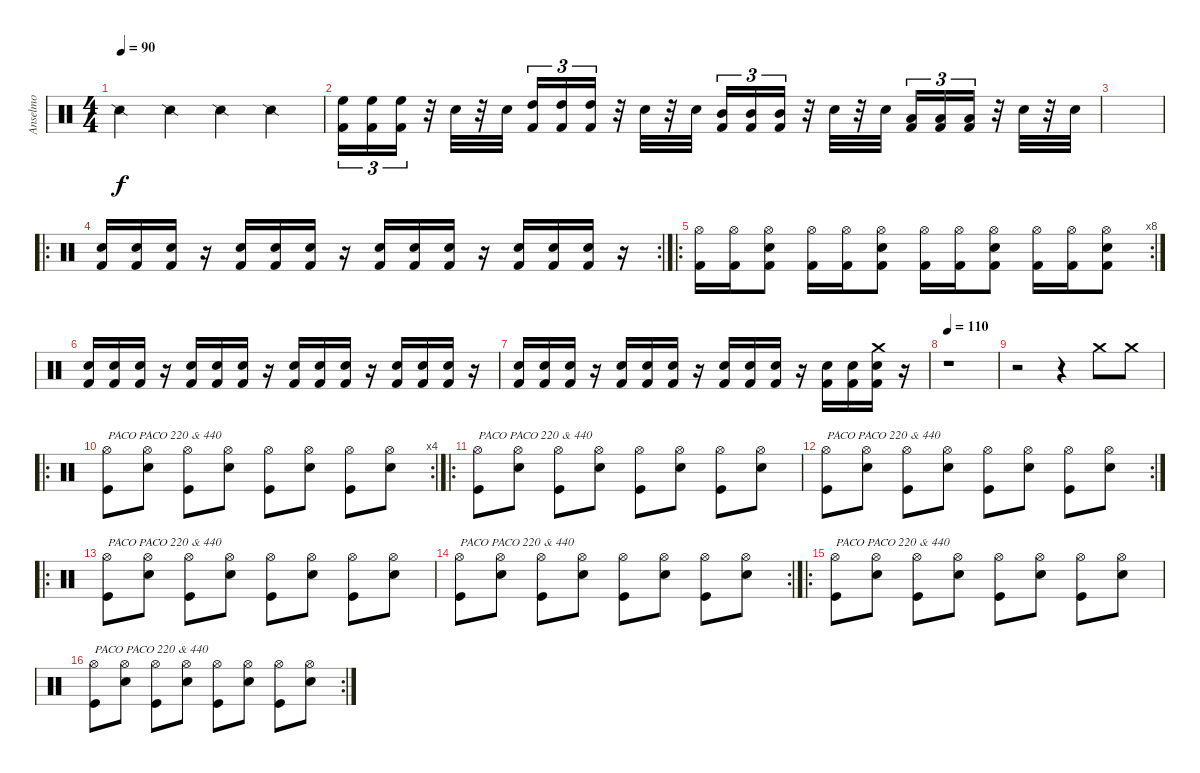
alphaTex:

\track ("Anselmo" "Anselmo") {instrument percussion}
\staff {score}
\articulation defaults
\ts (4 4)
\tempo 90
\clef neutral
\ks c "Snare (side stick) 2".4{dy f} "Snare (side stick) 2".4 "Snare (side stick) 2".4 "Snare (side stick) 2".4
|
("Kick (hit) 2" "High Floor Tom (hit)").16{tu (3 2)} ("Kick (hit) 2" "High Floor Tom (hit)").16{tu (3 2)} ("Kick (hit) 2" "High Floor Tom (hit)").16{tu (3 2)} r.32 "Electric Snare (hit)".32 r.32 "Electric Snare (hit)".32 ("Kick (hit) 2" "High Tom (hit)").16{tu (3 2)} ("Kick (hit) 2" "High Tom (hit)").16{tu (3 2)} ("Kick (hit) 2" "High Tom (hit)").16{tu (3 2)} r.32 "Electric Snare (hit)".32 r.32 "Electric Snare (hit)".32 ("Kick (hit) 2" "Mid Tom (hit)").16{tu (3 2)} ("Kick (hit) 2" "Mid Tom (hit)").16{tu (3 2)} ("Kick (hit) 2" "Mid Tom (hit)").16{tu (3 2)} r.32 "Electric Snare (hit)".32 r.32 "Electric Snare (hit)".32 ("Kick (hit) 2" "Low Tom (hit)").16{tu (3 2)} ("Kick (hit) 2" "Low Tom (hit)").16{tu (3 2)} ("Kick (hit) 2" "Low Tom (hit)").16{tu (3 2)} r.32 "Electric Snare (hit)".32 r.32 "Electric Snare (hit)".32 |
|
\ro
\rc 2
("Electric Snare (hit)" "Kick (hit) 2").16 ("Electric Snare (hit)" "Kick (hit) 2").16 ("Electric Snare (hit)" "Kick (hit) 2").16 r.16 ("Electric Snare (hit)" "Kick (hit) 2").16 ("Electric Snare (hit)" "Kick (hit) 2").16 ("Electric Snare (hit)" "Kick (hit) 2").16 r.16 ("Electric Snare (hit)" "Kick (hit) 2").16 ("Electric Snare (hit)" "Kick (hit) 2").16 ("Electric Snare (hit)" "Kick (hit) 2").16 r.16 ("Electric Snare (hit)" "Kick (hit) 2").16 ("Electric Snare (hit)" "Kick (hit) 2").16 ("Electric Snare (hit)" "Kick (hit) 2").16 r.16 |
\ro
\rc 8
("Hi-Hat (open)" "Kick (hit) 2").16 ("Hi-Hat (open)" "Kick (hit) 2").16 ("Hi-Hat (open)" "Electric Snare (hit)" "Kick (hit) 2").8 ("Hi-Hat (open)" "Kick (hit) 2").16 ("Hi-Hat (open)" "Kick (hit) 2").16 ("Hi-Hat (open)" "Electric Snare (hit)" "Kick (hit) 2").8 ("Hi-Hat (open)" "Kick (hit) 2").16 ("Hi-Hat (open)" "Kick (hit) 2").16 ("Hi-Hat (open)" "Electric Snare (hit)" "Kick (hit) 2").8 ("Hi-Hat (open)" "Kick (hit) 2").16 ("Hi-Hat (open)" "Kick (hit) 2").16 ("Hi-Hat (open)" "Electric Snare (hit)" "Kick (hit) 2").8 |
("Electric Snare (hit)" "Kick (hit) 2").16 ("Electric Snare (hit)" "Kick (hit) 2").16 ("Electric Snare (hit)" "Kick (hit) 2").16 r.16 ("Electric Snare (hit)" "Kick (hit) 2").16 ("Electric Snare (hit)" "Kick (hit) 2").16 ("Electric Snare (hit)" "Kick (hit) 2").16 r.16 ("Electric Snare (hit)" "Kick (hit) 2").16 ("Electric Snare (hit)" "Kick (hit) 2").16 ("Electric Snare (hit)" "Kick (hit) 2").16 r.16 ("Electric Snare (hit)" "Kick (hit) 2").16 ("Electric Snare (hit)" "Kick (hit) 2").16 ("Electric Snare (hit)" "Kick (hit) 2").16 r.16 |
("Electric Snare (hit)" "Kick (hit) 2").16 ("Electric Snare (hit)" "Kick (hit) 2").16 ("Electric Snare (hit)" "Kick (hit) 2").16 r.16 ("Electric Snare (hit)" "Kick (hit) 2").16 ("Electric Snare (hit)" "Kick (hit) 2").16 ("Electric Snare (hit)" "Kick (hit) 2").16 r.16 ("Electric Snare (hit)" "Kick (hit) 2").16 ("Electric Snare (hit)" "Kick (hit) 2").16 ("Electric Snare (hit)" "Kick (hit) 2").16 r.16 ("Electric Snare (hit)" "Kick (hit) 2").16 ("Electric Snare (hit)" "Kick (hit) 2").16 ("Crash medium (hit)" "Electric Snare (hit)" "Kick (hit) 2").16 r.16 |
\tempo 110
r.1 |
r.2 r.4 "Crash medium (hit)".8 "Crash medium (hit)".8 |
\ro
\rc 4
("Kick (hit)" "Hi-Hat (open)").8{txt "PACO PACO 220 & 440"} ("Electric Snare (hit)" "Hi-Hat (open)").8 ("Kick (hit)" "Hi-Hat (open)").8 ("Electric Snare (hit)" "Hi-Hat (open)").8 ("Kick (hit)" "Hi-Hat (open)").8 ("Electric Snare (hit)" "Hi-Hat (open)").8 ("Kick (hit)" "Hi-Hat (open)").8 ("Electric Snare (hit)" "Hi-Hat (open)").8 |
\ro
("Kick (hit)" "Hi-Hat (open)").8{txt "PACO PACO 220 & 440"} ("Electric Snare (hit)" "Hi-Hat (open)").8 ("Kick (hit)" "Hi-Hat (open)").8 ("Electric Snare (hit)" "Hi-Hat (open)").8 ("Kick (hit)" "Hi-Hat (open)").8 ("Electric Snare (hit)" "Hi-Hat (open)").8 ("Kick (hit)" "Hi-Hat (open)").8 ("Electric Snare (hit)" "Hi-Hat (open)").8 |
\rc 2
("Kick (hit)" "Hi-Hat (open)").8{txt "PACO PACO 220 & 440"} ("Electric Snare (hit)" "Hi-Hat (open)").8 ("Kick (hit)" "Hi-Hat (open)").8 ("Electric Snare (hit)" "Hi-Hat (open)").8 ("Kick (hit)" "Hi-Hat (open)").8 ("Electric Snare (hit)" "Hi-Hat (open)").8 ("Kick (hit)" "Hi-Hat (open)").8 ("Electric Snare (hit)" "Hi-Hat (open)").8 |
\ro
("Kick (hit)" "Hi-Hat (open)").8{txt "PACO PACO 220 & 440"} ("Electric Snare (hit)" "Hi-Hat (open)").8 ("Kick (hit)" "Hi-Hat (open)").8 ("Electric Snare (hit)" "Hi-Hat (open)").8 ("Kick (hit)" "Hi-Hat (open)").8 ("Electric Snare (hit)" "Hi-Hat (open)").8 ("Kick (hit)" "Hi-Hat (open)").8 ("Electric Snare (hit)" "Hi-Hat (open)").8 |
\rc 2
("Kick (hit)" "Hi-Hat (open)").8{txt "PACO PACO 220 & 440"} ("Electric Snare (hit)" "Hi-Hat (open)").8 ("Kick (hit)" "Hi-Hat (open)").8 ("Electric Snare (hit)" "Hi-Hat (open)").8 ("Kick (hit)" "Hi-Hat (open)").8 ("Electric Snare (hit)" "Hi-Hat (open)").8 ("Kick (hit)" "Hi-Hat (open)").8 ("Electric Snare (hit)" "Hi-Hat (open)").8 |
\ro
("Kick (hit)" "Hi-Hat (open)").8{txt "PACO PACO 220 & 440"} ("Electric Snare (hit)" "Hi-Hat (open)").8 ("Kick (hit)" "Hi-Hat (open)").8 ("Electric Snare (hit)" "Hi-Hat (open)").8 ("Kick (hit)" "Hi-Hat (open)").8 ("Electric Snare (hit)" "Hi-Hat (open)").8 ("Kick (hit)" "Hi-Hat (open)").8 ("Electric Snare (hit)" "Hi-Hat (open)").8 |
\rc 2
("Kick (hit)" "Hi-Hat (open)").8{txt "PACO PACO 220 & 440"} ("Electric Snare (hit)" "Hi-Hat (open)").8 ("Kick (hit)" "Hi-Hat (open)").8 ("Electric Snare (hit)" "Hi-Hat (open)").8 ("Kick (hit)" "Hi-Hat (open)").8 ("Electric Snare (hit)" "Hi-Hat (open)").8 ("Kick (hit)" "Hi-Hat (open)").8 ("Electric Snare (hit)" "Hi-Hat (open)").8
